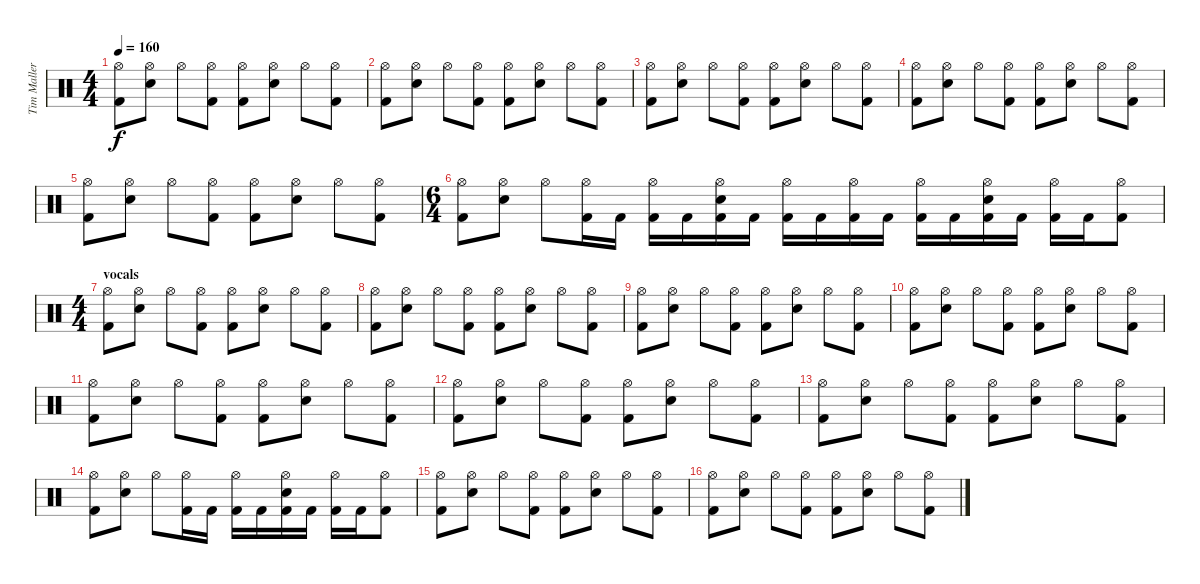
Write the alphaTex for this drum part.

\track ("Tim Mallere" "Tim Maller") {instrument percussion}
\staff {score}
\articulation defaults
\ts (4 4)
\tempo 160
\clef neutral
\ks c
("Hi-Hat (open)" "Kick (hit) 2").8{dy f} ("Hi-Hat (open)" "Electric Snare (hit)").8 "Hi-Hat (open)".8 ("Hi-Hat (open)" "Kick (hit) 2").8 ("Hi-Hat (open)" "Kick (hit) 2").8 ("Hi-Hat (open)" "Electric Snare (hit)").8 "Hi-Hat (open)".8 ("Hi-Hat (open)" "Kick (hit) 2").8 |
("Hi-Hat (open)" "Kick (hit) 2").8 ("Hi-Hat (open)" "Electric Snare (hit)").8 "Hi-Hat (open)".8 ("Hi-Hat (open)" "Kick (hit) 2").8 ("Hi-Hat (open)" "Kick (hit) 2").8 ("Hi-Hat (open)" "Electric Snare (hit)").8 "Hi-Hat (open)".8 ("Hi-Hat (open)" "Kick (hit) 2").8 |
("Hi-Hat (open)" "Kick (hit) 2").8 ("Hi-Hat (open)" "Electric Snare (hit)").8 "Hi-Hat (open)".8 ("Hi-Hat (open)" "Kick (hit) 2").8 ("Hi-Hat (open)" "Kick (hit) 2").8 ("Hi-Hat (open)" "Electric Snare (hit)").8 "Hi-Hat (open)".8 ("Hi-Hat (open)" "Kick (hit) 2").8 |
("Hi-Hat (open)" "Kick (hit) 2").8 ("Hi-Hat (open)" "Electric Snare (hit)").8 "Hi-Hat (open)".8 ("Hi-Hat (open)" "Kick (hit) 2").8 ("Hi-Hat (open)" "Kick (hit) 2").8 ("Hi-Hat (open)" "Electric Snare (hit)").8 "Hi-Hat (open)".8 ("Hi-Hat (open)" "Kick (hit) 2").8 |
("Hi-Hat (open)" "Kick (hit) 2").8 ("Hi-Hat (open)" "Electric Snare (hit)").8 "Hi-Hat (open)".8 ("Hi-Hat (open)" "Kick (hit) 2").8 ("Hi-Hat (open)" "Kick (hit) 2").8 ("Hi-Hat (open)" "Electric Snare (hit)").8 "Hi-Hat (open)".8 ("Hi-Hat (open)" "Kick (hit) 2").8 |
\ts (6 4)
("Hi-Hat (open)" "Kick (hit) 2").8 ("Hi-Hat (open)" "Electric Snare (hit)").8 "Hi-Hat (open)".8 ("Hi-Hat (open)" "Kick (hit) 2").16 "Kick (hit) 2".16 ("Hi-Hat (open)" "Kick (hit) 2").16 "Kick (hit) 2".16 ("Hi-Hat (open)" "Electric Snare (hit)" "Kick (hit) 2").16 "Kick (hit) 2".16 ("Hi-Hat (open)" "Kick (hit) 2").16 "Kick (hit) 2".16 ("Hi-Hat (open)" "Kick (hit) 2").16 "Kick (hit) 2".16 ("Hi-Hat (open)" "Kick (hit) 2").16 "Kick (hit) 2".16 ("Hi-Hat (open)" "Electric Snare (hit)" "Kick (hit) 2").16 "Kick (hit) 2".16 ("Hi-Hat (open)" "Kick (hit) 2").16 "Kick (hit) 2".16 ("Hi-Hat (open)" "Kick (hit) 2").8 |
\ts (4 4)
\section ("" "vocals")
("Hi-Hat (open)" "Kick (hit) 2").8 ("Hi-Hat (open)" "Electric Snare (hit)").8 "Hi-Hat (open)".8 ("Hi-Hat (open)" "Kick (hit) 2").8 ("Hi-Hat (open)" "Kick (hit) 2").8 ("Hi-Hat (open)" "Electric Snare (hit)").8 "Hi-Hat (open)".8 ("Hi-Hat (open)" "Kick (hit) 2").8 |
("Hi-Hat (open)" "Kick (hit) 2").8 ("Hi-Hat (open)" "Electric Snare (hit)").8 "Hi-Hat (open)".8 ("Hi-Hat (open)" "Kick (hit) 2").8 ("Hi-Hat (open)" "Kick (hit) 2").8 ("Hi-Hat (open)" "Electric Snare (hit)").8 "Hi-Hat (open)".8 ("Hi-Hat (open)" "Kick (hit) 2").8 |
("Hi-Hat (open)" "Kick (hit) 2").8 ("Hi-Hat (open)" "Electric Snare (hit)").8 "Hi-Hat (open)".8 ("Hi-Hat (open)" "Kick (hit) 2").8 ("Hi-Hat (open)" "Kick (hit) 2").8 ("Hi-Hat (open)" "Electric Snare (hit)").8 "Hi-Hat (open)".8 ("Hi-Hat (open)" "Kick (hit) 2").8 |
("Hi-Hat (open)" "Kick (hit) 2").8 ("Hi-Hat (open)" "Electric Snare (hit)").8 "Hi-Hat (open)".8 ("Hi-Hat (open)" "Kick (hit) 2").8 ("Hi-Hat (open)" "Kick (hit) 2").8 ("Hi-Hat (open)" "Electric Snare (hit)").8 "Hi-Hat (open)".8 ("Hi-Hat (open)" "Kick (hit) 2").8 |
("Hi-Hat (open)" "Kick (hit) 2").8 ("Hi-Hat (open)" "Electric Snare (hit)").8 "Hi-Hat (open)".8 ("Hi-Hat (open)" "Kick (hit) 2").8 ("Hi-Hat (open)" "Kick (hit) 2").8 ("Hi-Hat (open)" "Electric Snare (hit)").8 "Hi-Hat (open)".8 ("Hi-Hat (open)" "Kick (hit) 2").8 |
("Hi-Hat (open)" "Kick (hit) 2").8 ("Hi-Hat (open)" "Electric Snare (hit)").8 "Hi-Hat (open)".8 ("Hi-Hat (open)" "Kick (hit) 2").8 ("Hi-Hat (open)" "Kick (hit) 2").8 ("Hi-Hat (open)" "Electric Snare (hit)").8 "Hi-Hat (open)".8 ("Hi-Hat (open)" "Kick (hit) 2").8 |
("Hi-Hat (open)" "Kick (hit) 2").8 ("Hi-Hat (open)" "Electric Snare (hit)").8 "Hi-Hat (open)".8 ("Hi-Hat (open)" "Kick (hit) 2").8 ("Hi-Hat (open)" "Kick (hit) 2").8 ("Hi-Hat (open)" "Electric Snare (hit)").8 "Hi-Hat (open)".8 ("Hi-Hat (open)" "Kick (hit) 2").8 |
("Hi-Hat (open)" "Kick (hit) 2").8 ("Hi-Hat (open)" "Electric Snare (hit)").8 "Hi-Hat (open)".8 ("Hi-Hat (open)" "Kick (hit) 2").16 "Kick (hit) 2".16 ("Hi-Hat (open)" "Kick (hit) 2").16 "Kick (hit) 2".16 ("Hi-Hat (open)" "Electric Snare (hit)" "Kick (hit) 2").16 "Kick (hit) 2".16 ("Hi-Hat (open)" "Kick (hit) 2").16 "Kick (hit) 2".16 ("Hi-Hat (open)" "Kick (hit) 2").8 |
("Hi-Hat (open)" "Kick (hit) 2").8 ("Hi-Hat (open)" "Electric Snare (hit)").8 "Hi-Hat (open)".8 ("Hi-Hat (open)" "Kick (hit) 2").8 ("Hi-Hat (open)" "Kick (hit) 2").8 ("Hi-Hat (open)" "Electric Snare (hit)").8 "Hi-Hat (open)".8 ("Hi-Hat (open)" "Kick (hit) 2").8 |
("Hi-Hat (open)" "Kick (hit) 2").8 ("Hi-Hat (open)" "Electric Snare (hit)").8 "Hi-Hat (open)".8 ("Hi-Hat (open)" "Kick (hit) 2").8 ("Hi-Hat (open)" "Kick (hit) 2").8 ("Hi-Hat (open)" "Electric Snare (hit)").8 "Hi-Hat (open)".8 ("Hi-Hat (open)" "Kick (hit) 2").8
